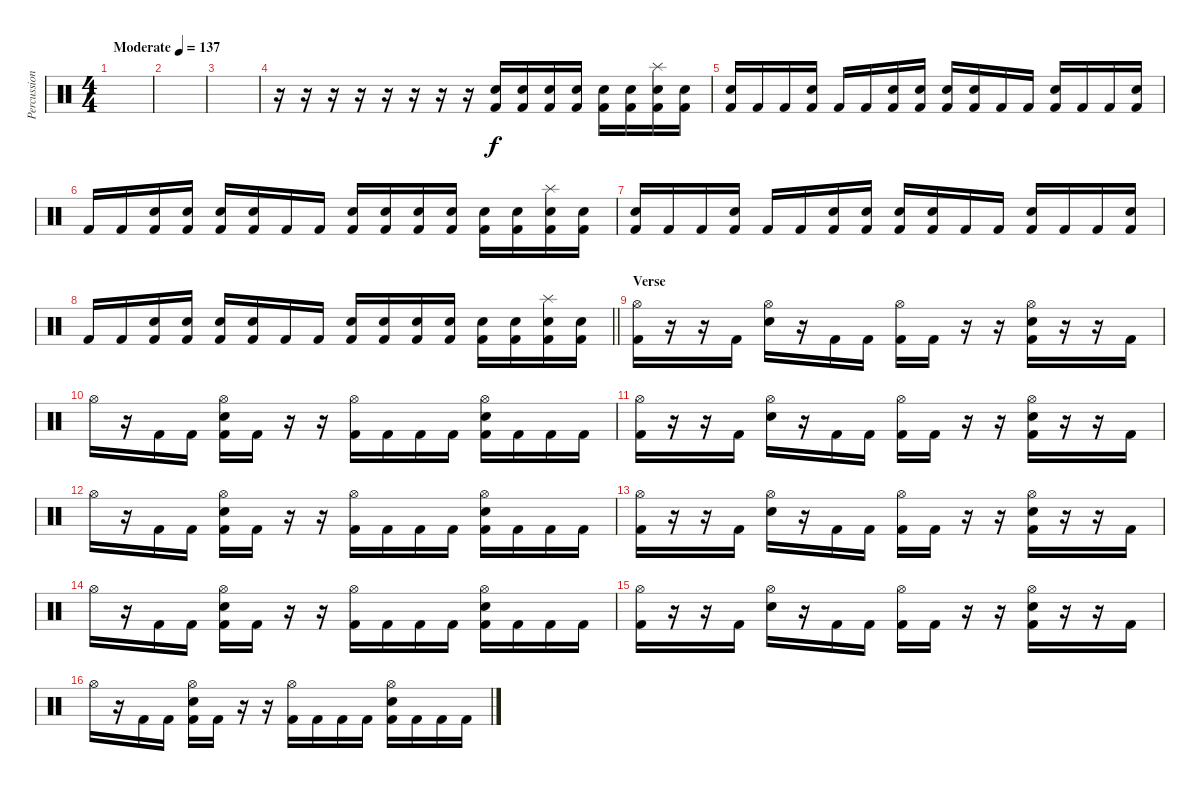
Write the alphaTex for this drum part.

\track ("Percussion" "Percussion") {instrument percussion}
\staff {score}
\articulation defaults
\ts (4 4)
\tempo (137 "Moderate")
\clef neutral
\ks c
|
|
|
r.16 r.16 r.16 r.16 r.16 r.16 r.16 r.16 ("Snare (hit) 2" "Kick (hit) 2").16 ("Snare (hit) 2" "Kick (hit) 2").16 ("Snare (hit) 2" "Kick (hit) 2").16 ("Snare (hit) 2" "Kick (hit) 2").16 ("Snare (hit) 2" "Kick (hit) 2").16 ("Snare (hit) 2" "Kick (hit) 2").16 ("Splash (hit)" "Snare (hit) 2" "Kick (hit) 2").16 ("Snare (hit) 2" "Kick (hit) 2").16 |
("Snare (hit) 2" "Kick (hit) 2").16 "Kick (hit) 2".16 "Kick (hit) 2".16 ("Snare (hit) 2" "Kick (hit) 2").16 "Kick (hit) 2".16 "Kick (hit) 2".16 ("Snare (hit) 2" "Kick (hit) 2").16 ("Snare (hit) 2" "Kick (hit) 2").16 ("Snare (hit) 2" "Kick (hit) 2").16 ("Snare (hit) 2" "Kick (hit) 2").16 "Kick (hit) 2".16 "Kick (hit) 2".16 ("Snare (hit) 2" "Kick (hit) 2").16 "Kick (hit) 2".16 "Kick (hit) 2".16 ("Snare (hit) 2" "Kick (hit) 2").16 |
"Kick (hit) 2".16 "Kick (hit) 2".16 ("Snare (hit) 2" "Kick (hit) 2").16 ("Snare (hit) 2" "Kick (hit) 2").16 ("Snare (hit) 2" "Kick (hit) 2").16 ("Snare (hit) 2" "Kick (hit) 2").16 "Kick (hit) 2".16 "Kick (hit) 2".16 ("Snare (hit) 2" "Kick (hit) 2").16 ("Snare (hit) 2" "Kick (hit) 2").16 ("Snare (hit) 2" "Kick (hit) 2").16 ("Snare (hit) 2" "Kick (hit) 2").16 ("Snare (hit) 2" "Kick (hit) 2").16 ("Snare (hit) 2" "Kick (hit) 2").16 ("Splash (hit)" "Snare (hit) 2" "Kick (hit) 2").16 ("Snare (hit) 2" "Kick (hit) 2").16 |
("Snare (hit) 2" "Kick (hit) 2").16 "Kick (hit) 2".16 "Kick (hit) 2".16 ("Snare (hit) 2" "Kick (hit) 2").16 "Kick (hit) 2".16 "Kick (hit) 2".16 ("Snare (hit) 2" "Kick (hit) 2").16 ("Snare (hit) 2" "Kick (hit) 2").16 ("Snare (hit) 2" "Kick (hit) 2").16 ("Snare (hit) 2" "Kick (hit) 2").16 "Kick (hit) 2".16 "Kick (hit) 2".16 ("Snare (hit) 2" "Kick (hit) 2").16 "Kick (hit) 2".16 "Kick (hit) 2".16 ("Snare (hit) 2" "Kick (hit) 2").16 |
\barLineRight lightlight "Kick (hit) 2".16 "Kick (hit) 2".16
("Snare (hit) 2" "Kick (hit) 2").16 ("Snare (hit) 2" "Kick (hit) 2").16 ("Snare (hit) 2" "Kick (hit) 2").16 ("Snare (hit) 2" "Kick (hit) 2").16 "Kick (hit) 2".16 "Kick (hit) 2".16 ("Snare (hit) 2" "Kick (hit) 2").16 ("Snare (hit) 2" "Kick (hit) 2").16 ("Snare (hit) 2" "Kick (hit) 2").16 ("Snare (hit) 2" "Kick (hit) 2").16 ("Snare (hit) 2" "Kick (hit) 2").16 ("Snare (hit) 2" "Kick (hit) 2").16 ("Splash (hit)" "Snare (hit) 2" "Kick (hit) 2").16 ("Snare (hit) 2" "Kick (hit) 2").16 |
\section ("" "Verse")
("Hi-Hat (open)" "Kick (hit) 2").16 r.16 r.16 "Kick (hit) 2".16 ("Hi-Hat (open)" "Snare (hit) 2").16 r.16 "Kick (hit) 2".16 "Kick (hit) 2".16 ("Hi-Hat (open)" "Kick (hit) 2").16 "Kick (hit) 2".16 r.16 r.16 ("Hi-Hat (open)" "Snare (hit) 2" "Kick (hit) 2").16 r.16 r.16 "Kick (hit) 2".16 |
"Hi-Hat (open)".16 r.16 "Kick (hit) 2".16 "Kick (hit) 2".16 ("Hi-Hat (open)" "Snare (hit) 2" "Kick (hit) 2").16 "Kick (hit) 2".16 r.16 r.16 ("Hi-Hat (open)" "Kick (hit) 2").16 "Kick (hit) 2".16 "Kick (hit) 2".16 "Kick (hit) 2".16 ("Hi-Hat (open)" "Snare (hit) 2" "Kick (hit) 2").16 "Kick (hit) 2".16 "Kick (hit) 2".16 "Kick (hit) 2".16 |
("Hi-Hat (open)" "Kick (hit) 2").16 r.16 r.16 "Kick (hit) 2".16 ("Hi-Hat (open)" "Snare (hit) 2").16 r.16 "Kick (hit) 2".16 "Kick (hit) 2".16 ("Hi-Hat (open)" "Kick (hit) 2").16 "Kick (hit) 2".16 r.16 r.16 ("Hi-Hat (open)" "Snare (hit) 2" "Kick (hit) 2").16 r.16 r.16 "Kick (hit) 2".16 |
"Hi-Hat (open)".16 r.16 "Kick (hit) 2".16 "Kick (hit) 2".16 ("Hi-Hat (open)" "Snare (hit) 2" "Kick (hit) 2").16 "Kick (hit) 2".16 r.16 r.16 ("Hi-Hat (open)" "Kick (hit) 2").16 "Kick (hit) 2".16 "Kick (hit) 2".16 "Kick (hit) 2".16 ("Hi-Hat (open)" "Snare (hit) 2" "Kick (hit) 2").16 "Kick (hit) 2".16 "Kick (hit) 2".16 "Kick (hit) 2".16 |
("Hi-Hat (open)" "Kick (hit) 2").16 r.16 r.16 "Kick (hit) 2".16 ("Hi-Hat (open)" "Snare (hit) 2").16 r.16 "Kick (hit) 2".16 "Kick (hit) 2".16 ("Hi-Hat (open)" "Kick (hit) 2").16 "Kick (hit) 2".16 r.16 r.16 ("Hi-Hat (open)" "Snare (hit) 2" "Kick (hit) 2").16 r.16 r.16 "Kick (hit) 2".16 |
"Hi-Hat (open)".16 r.16 "Kick (hit) 2".16 "Kick (hit) 2".16 ("Hi-Hat (open)" "Snare (hit) 2" "Kick (hit) 2").16 "Kick (hit) 2".16 r.16 r.16 ("Hi-Hat (open)" "Kick (hit) 2").16 "Kick (hit) 2".16 "Kick (hit) 2".16 "Kick (hit) 2".16 ("Hi-Hat (open)" "Snare (hit) 2" "Kick (hit) 2").16 "Kick (hit) 2".16 "Kick (hit) 2".16 "Kick (hit) 2".16 |
("Hi-Hat (open)" "Kick (hit) 2").16 r.16 r.16 "Kick (hit) 2".16 ("Hi-Hat (open)" "Snare (hit) 2").16 r.16 "Kick (hit) 2".16 "Kick (hit) 2".16 ("Hi-Hat (open)" "Kick (hit) 2").16 "Kick (hit) 2".16 r.16 r.16 ("Hi-Hat (open)" "Snare (hit) 2" "Kick (hit) 2").16 r.16 r.16 "Kick (hit) 2".16 |
"Hi-Hat (open)".16 r.16 "Kick (hit) 2".16 "Kick (hit) 2".16 ("Hi-Hat (open)" "Snare (hit) 2" "Kick (hit) 2").16 "Kick (hit) 2".16 r.16 r.16 ("Hi-Hat (open)" "Kick (hit) 2").16 "Kick (hit) 2".16 "Kick (hit) 2".16 "Kick (hit) 2".16 ("Hi-Hat (open)" "Snare (hit) 2" "Kick (hit) 2").16 "Kick (hit) 2".16 "Kick (hit) 2".16 "Kick (hit) 2".16
